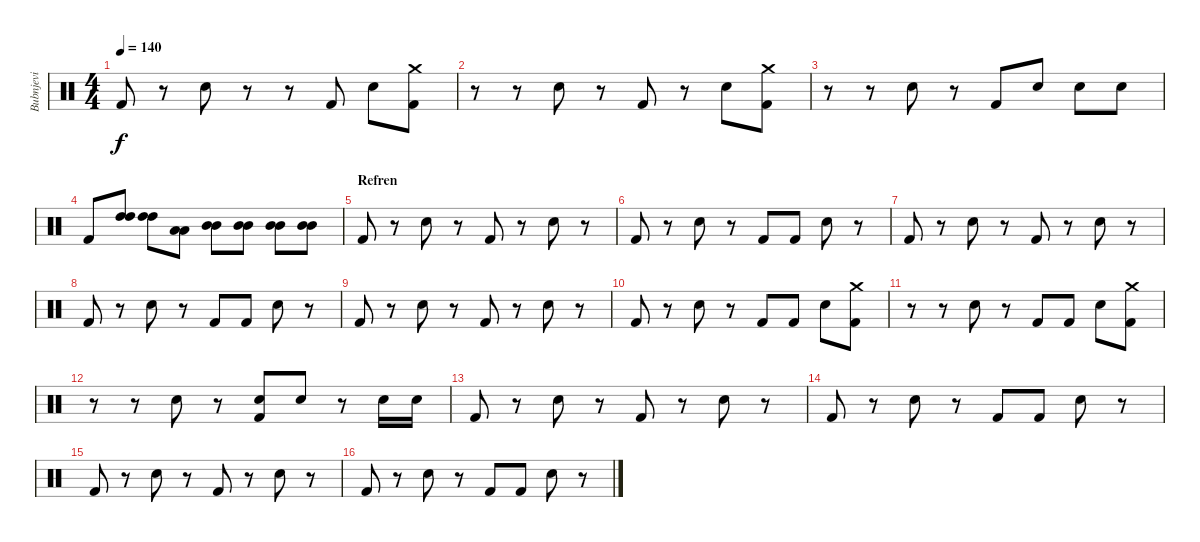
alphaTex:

\track ("Bubnjevi" "Bubnjevi") {instrument percussion}
\staff {score}
\articulation defaults
\ts (4 4)
\tempo 140
\clef neutral
\ks c "Kick (hit) 2".8{dy f}
r.8 "Snare (hit) 2".8 r.8 r.8 "Kick (hit) 2".8 "Snare (hit) 2".8 ("Crash medium (hit)" "Kick (hit) 2").8 |
r.8 r.8 "Snare (hit) 2".8 r.8 "Kick (hit) 2".8 r.8 "Snare (hit) 2".8 ("Crash medium (hit)" "Kick (hit) 2").8 |
r.8 r.8 "Snare (hit) 2".8 r.8 "Kick (hit) 2".8 "Snare (hit) 2".8 "Snare (hit) 2".8 "Snare (hit) 2".8 |
"Kick (hit) 2".8 ("High Tom (hit)" "High Tom (hit)").8 ("High Tom (hit)" "High Tom (hit)").8 ("Low Tom (hit)" "Low Tom (hit)").8 ("Mid Tom (hit)" "Mid Tom (hit)").8 ("Mid Tom (hit)" "Mid Tom (hit)").8 ("Mid Tom (hit)" "Mid Tom (hit)").8 ("Mid Tom (hit)" "Mid Tom (hit)").8 |
\section ("" "Refren")
"Kick (hit) 2".8 r.8 "Snare (hit) 2".8 r.8 "Kick (hit) 2".8 r.8 "Snare (hit) 2".8 r.8 |
"Kick (hit) 2".8 r.8 "Snare (hit) 2".8 r.8 "Kick (hit) 2".8 "Kick (hit) 2".8 "Snare (hit) 2".8 r.8 |
"Kick (hit) 2".8 r.8 "Snare (hit) 2".8 r.8 "Kick (hit) 2".8 r.8 "Snare (hit) 2".8 r.8 |
"Kick (hit) 2".8 r.8 "Snare (hit) 2".8 r.8 "Kick (hit) 2".8 "Kick (hit) 2".8 "Snare (hit) 2".8 r.8 |
"Kick (hit) 2".8 r.8 "Snare (hit) 2".8 r.8 "Kick (hit) 2".8 r.8 "Snare (hit) 2".8 r.8 |
"Kick (hit) 2".8 r.8 "Snare (hit) 2".8 r.8 "Kick (hit) 2".8 "Kick (hit) 2".8 "Snare (hit) 2".8 ("Crash medium (hit)" "Kick (hit) 2").8 |
r.8 r.8 "Snare (hit) 2".8 r.8 "Kick (hit) 2".8 "Kick (hit) 2".8 "Snare (hit) 2".8 ("Crash medium (hit)" "Kick (hit) 2").8 |
r.8 r.8 "Snare (hit) 2".8 r.8 ("Snare (hit) 2" "Kick (hit) 2").8 "Snare (hit) 2".8 r.8 "Snare (hit) 2".16 "Snare (hit) 2".16 |
"Kick (hit) 2".8 r.8 "Snare (hit) 2".8 r.8 "Kick (hit) 2".8 r.8 "Snare (hit) 2".8 r.8 |
"Kick (hit) 2".8 r.8 "Snare (hit) 2".8 r.8 "Kick (hit) 2".8 "Kick (hit) 2".8 "Snare (hit) 2".8 r.8 |
"Kick (hit) 2".8 r.8 "Snare (hit) 2".8 r.8 "Kick (hit) 2".8 r.8 "Snare (hit) 2".8 r.8 |
"Kick (hit) 2".8 r.8 "Snare (hit) 2".8 r.8 "Kick (hit) 2".8 "Kick (hit) 2".8 "Snare (hit) 2".8 r.8
